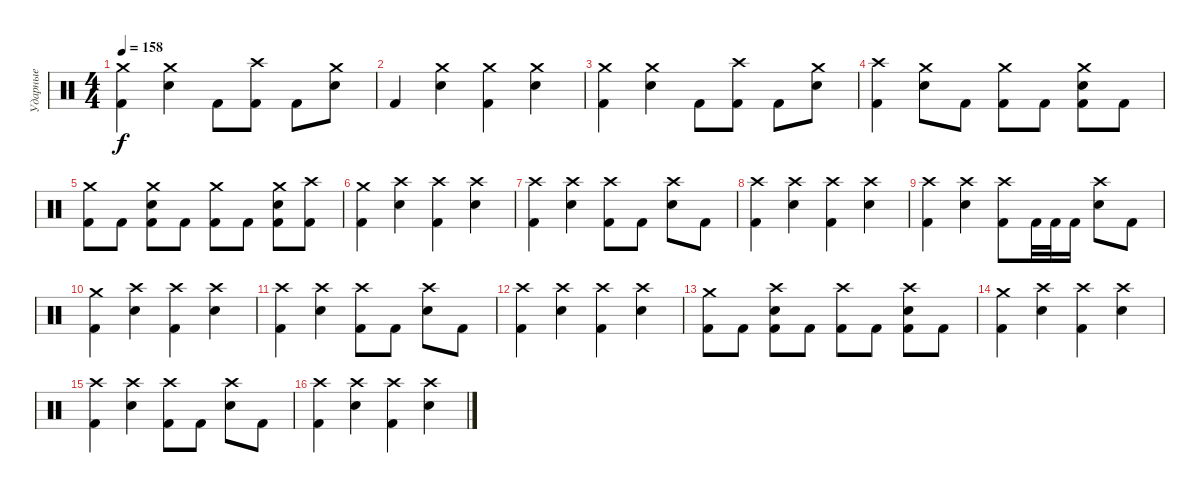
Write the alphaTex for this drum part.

\track ("Ударные" "Ударные") {instrument percussion}
\staff {score}
\articulation defaults
\ts (4 4)
\tempo 158
\clef neutral
\ks c
("Crash medium (hit)" "Kick (hit) 2").4{dy f} ("Crash medium (hit)" "Snare (hit) 2").4 "Kick (hit) 2".8 ("Crash high (hit)" "Kick (hit) 2").8 "Kick (hit) 2".8 ("Crash medium (hit)" "Snare (hit) 2").8 |
"Kick (hit) 2".4 ("Crash medium (hit)" "Snare (hit) 2").4 ("Crash medium (hit)" "Kick (hit) 2").4 ("Crash medium (hit)" "Snare (hit) 2").4 |
("Crash medium (hit)" "Kick (hit) 2").4 ("Crash medium (hit)" "Snare (hit) 2").4 "Kick (hit) 2".8 ("Crash high (hit)" "Kick (hit) 2").8 "Kick (hit) 2".8 ("Crash medium (hit)" "Snare (hit) 2").8 |
("Crash high (hit)" "Kick (hit) 2").4 ("Crash medium (hit)" "Snare (hit) 2").8 "Kick (hit) 2".8 ("Crash medium (hit)" "Kick (hit) 2").8 "Kick (hit) 2".8 ("Crash medium (hit)" "Snare (hit) 2" "Kick (hit) 2").8 "Kick (hit) 2".8 |
("Crash medium (hit)" "Kick (hit) 2").8 "Kick (hit) 2".8 ("Crash medium (hit)" "Snare (hit) 2" "Kick (hit) 2").8 "Kick (hit) 2".8 ("Crash medium (hit)" "Kick (hit) 2").8 "Kick (hit) 2".8 ("Crash medium (hit)" "Snare (hit) 2" "Kick (hit) 2").8 ("Crash high (hit)" "Kick (hit) 2").8 |
("Crash medium (hit)" "Kick (hit) 2").4 ("Crash high (hit)" "Snare (hit) 2").4 ("Crash high (hit)" "Kick (hit) 2").4 ("Crash high (hit)" "Snare (hit) 2").4 |
("Crash high (hit)" "Kick (hit) 2").4 ("Crash high (hit)" "Snare (hit) 2").4 ("Crash high (hit)" "Kick (hit) 2").8 "Kick (hit) 2".8 ("Crash high (hit)" "Snare (hit) 2").8 "Kick (hit) 2".8 |
("Crash high (hit)" "Kick (hit) 2").4 ("Crash high (hit)" "Snare (hit) 2").4 ("Crash high (hit)" "Kick (hit) 2").4 ("Crash high (hit)" "Snare (hit) 2").4 |
("Crash high (hit)" "Kick (hit) 2").4 ("Crash high (hit)" "Snare (hit) 2").4 ("Crash high (hit)" "Kick (hit) 2").8 "Kick (hit) 2".32 "Kick (hit) 2".32 "Kick (hit) 2".16 ("Crash high (hit)" "Snare (hit) 2").8 "Kick (hit) 2".8 |
("Crash medium (hit)" "Kick (hit) 2").4 ("Crash high (hit)" "Snare (hit) 2").4 ("Crash high (hit)" "Kick (hit) 2").4 ("Crash high (hit)" "Snare (hit) 2").4 |
("Crash high (hit)" "Kick (hit) 2").4 ("Crash high (hit)" "Snare (hit) 2").4 ("Crash high (hit)" "Kick (hit) 2").8 "Kick (hit) 2".8 ("Crash high (hit)" "Snare (hit) 2").8 "Kick (hit) 2".8 |
("Crash high (hit)" "Kick (hit) 2").4 ("Crash high (hit)" "Snare (hit) 2").4 ("Crash high (hit)" "Kick (hit) 2").4 ("Crash high (hit)" "Snare (hit) 2").4 |
("Crash medium (hit)" "Kick (hit) 2").8 "Kick (hit) 2".8 ("Crash high (hit)" "Snare (hit) 2" "Kick (hit) 2").8 "Kick (hit) 2".8 ("Crash high (hit)" "Kick (hit) 2").8 "Kick (hit) 2".8 ("Crash high (hit)" "Snare (hit) 2" "Kick (hit) 2").8 "Kick (hit) 2".8 |
("Crash medium (hit)" "Kick (hit) 2").4 ("Crash high (hit)" "Snare (hit) 2").4 ("Crash high (hit)" "Kick (hit) 2").4 ("Crash high (hit)" "Snare (hit) 2").4 |
("Crash high (hit)" "Kick (hit) 2").4 ("Crash high (hit)" "Snare (hit) 2").4 ("Crash high (hit)" "Kick (hit) 2").8 "Kick (hit) 2".8 ("Crash high (hit)" "Snare (hit) 2").8 "Kick (hit) 2".8 |
("Crash high (hit)" "Kick (hit) 2").4 ("Crash high (hit)" "Snare (hit) 2").4 ("Crash high (hit)" "Kick (hit) 2").4 ("Crash high (hit)" "Snare (hit) 2").4
